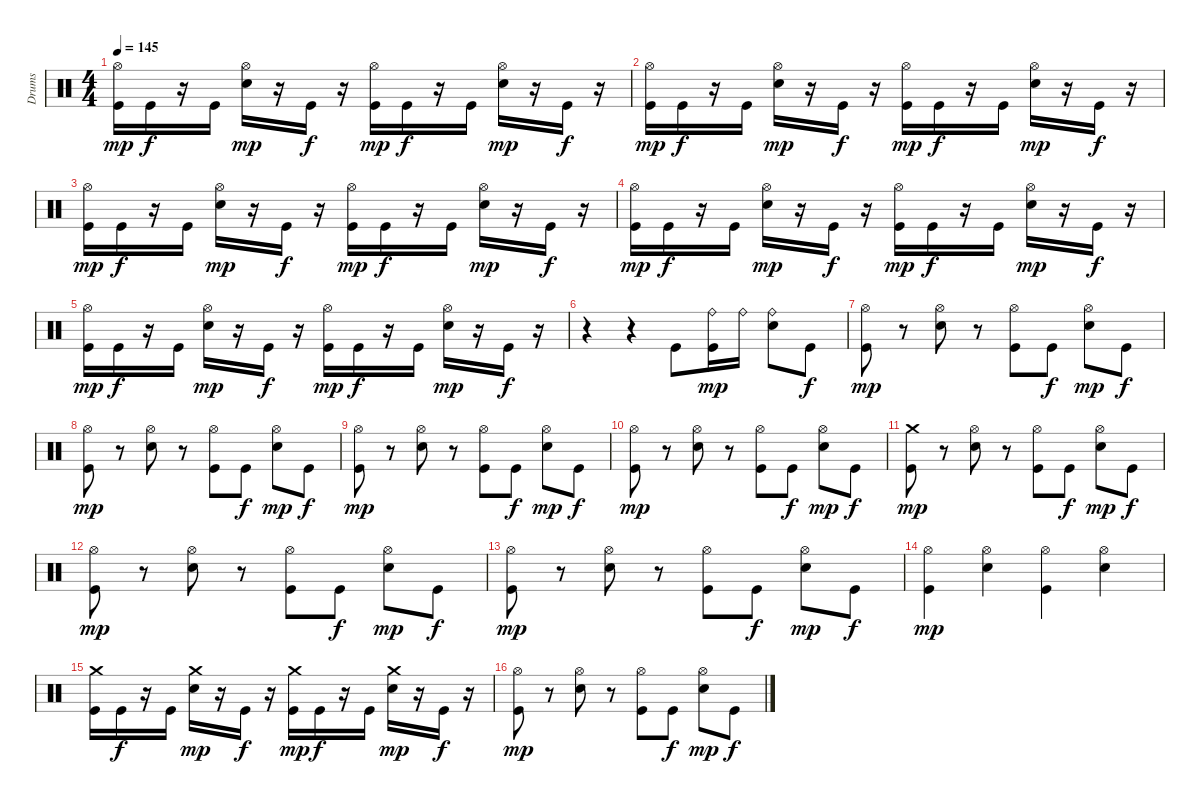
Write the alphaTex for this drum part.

\track ("Drums" "Drums") {instrument percussion}
\staff {score}
\articulation defaults
\ts (4 4)
\tempo 145
\clef neutral
\ks c
("Kick (hit)" "Hi-Hat (open)").16{dy mp} "Kick (hit)".16{dy f} r.16 "Kick (hit)".16 ("Snare (hit) 2" "Hi-Hat (open)").16{dy mp} r.16 "Kick (hit)".16{dy f} r.16 ("Kick (hit)" "Hi-Hat (open)").16{dy mp} "Kick (hit)".16{dy f} r.16 "Kick (hit)".16 ("Snare (hit) 2" "Hi-Hat (open)").16{dy mp} r.16 "Kick (hit)".16{dy f} r.16 |
("Kick (hit)" "Hi-Hat (open)").16{dy mp} "Kick (hit)".16{dy f} r.16 "Kick (hit)".16 ("Snare (hit) 2" "Hi-Hat (open)").16{dy mp} r.16 "Kick (hit)".16{dy f} r.16 ("Kick (hit)" "Hi-Hat (open)").16{dy mp} "Kick (hit)".16{dy f} r.16 "Kick (hit)".16 ("Snare (hit) 2" "Hi-Hat (open)").16{dy mp} r.16 "Kick (hit)".16{dy f} r.16 |
("Kick (hit)" "Hi-Hat (open)").16{dy mp} "Kick (hit)".16{dy f} r.16 "Kick (hit)".16 ("Snare (hit) 2" "Hi-Hat (open)").16{dy mp} r.16 "Kick (hit)".16{dy f} r.16 ("Kick (hit)" "Hi-Hat (open)").16{dy mp} "Kick (hit)".16{dy f} r.16 "Kick (hit)".16 ("Snare (hit) 2" "Hi-Hat (open)").16{dy mp} r.16 "Kick (hit)".16{dy f} r.16 |
("Kick (hit)" "Hi-Hat (open)").16{dy mp} "Kick (hit)".16{dy f} r.16 "Kick (hit)".16 ("Snare (hit) 2" "Hi-Hat (open)").16{dy mp} r.16 "Kick (hit)".16{dy f} r.16 ("Kick (hit)" "Hi-Hat (open)").16{dy mp} "Kick (hit)".16{dy f} r.16 "Kick (hit)".16 ("Snare (hit) 2" "Hi-Hat (open)").16{dy mp} r.16 "Kick (hit)".16{dy f} r.16 |
("Kick (hit)" "Hi-Hat (open)").16{dy mp} "Kick (hit)".16{dy f} r.16 "Kick (hit)".16 ("Snare (hit) 2" "Hi-Hat (open)").16{dy mp} r.16 "Kick (hit)".16{dy f} r.16 ("Kick (hit)" "Hi-Hat (open)").16{dy mp} "Kick (hit)".16{dy f} r.16 "Kick (hit)".16 ("Snare (hit) 2" "Hi-Hat (open)").16{dy mp} r.16 "Kick (hit)".16{dy f} r.16 |
r.4 r.4 "Kick (hit)".8 ("Kick (hit)" "Ride (bell)").16{dy mp} "Ride (bell)".16 ("Snare (hit) 2" "Ride (bell)").8 "Kick (hit)".8{dy f} |
("Kick (hit)" "Hi-Hat (open)").8{dy mp} r.8 ("Snare (hit) 2" "Hi-Hat (open)").8 r.8 ("Kick (hit)" "Hi-Hat (open)").8 "Kick (hit)".8{dy f} ("Snare (hit) 2" "Hi-Hat (open)").8{dy mp} "Kick (hit)".8{dy f} |
("Kick (hit)" "Hi-Hat (open)").8{dy mp} r.8 ("Snare (hit) 2" "Hi-Hat (open)").8 r.8 ("Kick (hit)" "Hi-Hat (open)").8 "Kick (hit)".8{dy f} ("Snare (hit) 2" "Hi-Hat (open)").8{dy mp} "Kick (hit)".8{dy f} |
("Kick (hit)" "Hi-Hat (open)").8{dy mp} r.8 ("Snare (hit) 2" "Hi-Hat (open)").8 r.8 ("Kick (hit)" "Hi-Hat (open)").8 "Kick (hit)".8{dy f} ("Snare (hit) 2" "Hi-Hat (open)").8{dy mp} "Kick (hit)".8{dy f} |
("Kick (hit)" "Hi-Hat (open)").8{dy mp} r.8 ("Snare (hit) 2" "Hi-Hat (open)").8 r.8 ("Kick (hit)" "Hi-Hat (open)").8 "Kick (hit)".8{dy f} ("Snare (hit) 2" "Hi-Hat (open)").8{dy mp} "Kick (hit)".8{dy f} |
("Kick (hit)" "Crash medium (hit)").8{dy mp} r.8 ("Snare (hit) 2" "Hi-Hat (open)").8 r.8 ("Kick (hit)" "Hi-Hat (open)").8 "Kick (hit)".8{dy f} ("Snare (hit) 2" "Hi-Hat (open)").8{dy mp} "Kick (hit)".8{dy f} |
("Kick (hit)" "Hi-Hat (open)").8{dy mp} r.8 ("Snare (hit) 2" "Hi-Hat (open)").8 r.8 ("Kick (hit)" "Hi-Hat (open)").8 "Kick (hit)".8{dy f} ("Snare (hit) 2" "Hi-Hat (open)").8{dy mp} "Kick (hit)".8{dy f} |
("Kick (hit)" "Hi-Hat (open)").8{dy mp} r.8 ("Snare (hit) 2" "Hi-Hat (open)").8 r.8 ("Kick (hit)" "Hi-Hat (open)").8 "Kick (hit)".8{dy f} ("Snare (hit) 2" "Hi-Hat (open)").8{dy mp} "Kick (hit)".8{dy f} |
("Kick (hit)" "Hi-Hat (open)").4{dy mp} ("Snare (hit) 2" "Hi-Hat (open)").4 ("Kick (hit)" "Hi-Hat (open)").4 ("Snare (hit) 2" "Hi-Hat (open)").4 |
("Kick (hit)" "Crash medium (hit)").16 "Kick (hit)".16{dy f} r.16 "Kick (hit)".16 ("Snare (hit) 2" "Crash medium (hit)").16{dy mp} r.16 "Kick (hit)".16{dy f} r.16 ("Kick (hit)" "Crash medium (hit)").16{dy mp} "Kick (hit)".16{dy f} r.16 "Kick (hit)".16 ("Snare (hit) 2" "Crash medium (hit)").16{dy mp} r.16 "Kick (hit)".16{dy f} r.16 |
("Kick (hit)" "Hi-Hat (open)").8{dy mp} r.8 ("Snare (hit) 2" "Hi-Hat (open)").8 r.8 ("Kick (hit)" "Hi-Hat (open)").8 "Kick (hit)".8{dy f} ("Snare (hit) 2" "Hi-Hat (open)").8{dy mp} "Kick (hit)".8{dy f}
